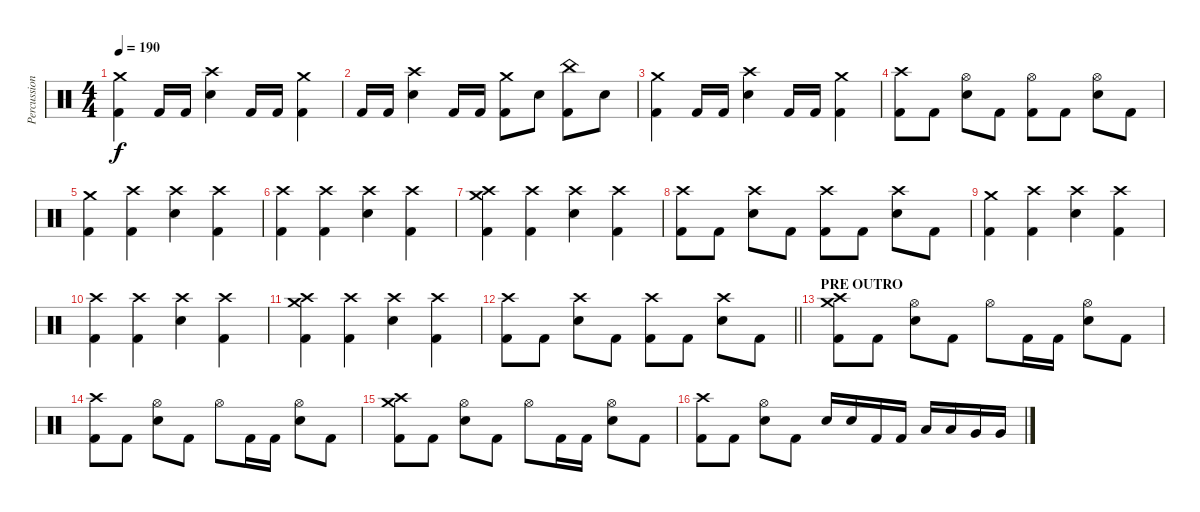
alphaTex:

\track ("Percussion" "Percussion") {instrument percussion}
\staff {score}
\articulation defaults
\ts (4 4)
\tempo 190
\clef neutral
\ks c
("Crash medium (hit)" "Kick (hit) 2").4{dy f} "Kick (hit) 2".16 "Kick (hit) 2".16 ("Crash high (hit)" "Electric Snare (hit)").4 "Kick (hit) 2".16 "Kick (hit) 2".16 ("Crash medium (hit)" "Kick (hit) 2").4 |
"Kick (hit) 2".16 "Kick (hit) 2".16 ("Crash high (hit)" "Electric Snare (hit)").4 "Kick (hit) 2".16 "Kick (hit) 2".16 ("Crash medium (hit)" "Kick (hit) 2").8 "Electric Snare (hit)".8 ("China (hit)" "Kick (hit) 2").8 "Electric Snare (hit)".8 |
("Crash medium (hit)" "Kick (hit) 2").4 "Kick (hit) 2".16 "Kick (hit) 2".16 ("Crash high (hit)" "Electric Snare (hit)").4 "Kick (hit) 2".16 "Kick (hit) 2".16 ("Crash medium (hit)" "Kick (hit) 2").4 |
("Crash high (hit)" "Kick (hit) 2").8 "Kick (hit) 2".8 ("Hi-Hat (open)" "Electric Snare (hit)").8 "Kick (hit) 2".8 ("Hi-Hat (open)" "Kick (hit) 2").8 "Kick (hit) 2".8 ("Hi-Hat (open)" "Electric Snare (hit)").8 "Kick (hit) 2".8 |
("Crash medium (hit)" "Kick (hit) 2").4 ("Crash high (hit)" "Kick (hit) 2").4 ("Crash high (hit)" "Electric Snare (hit)").4 ("Crash high (hit)" "Kick (hit) 2").4 |
("Crash high (hit)" "Kick (hit) 2").4 ("Crash high (hit)" "Kick (hit) 2").4 ("Crash high (hit)" "Electric Snare (hit)").4 ("Crash high (hit)" "Kick (hit) 2").4 |
("Crash high (hit)" "Crash medium (hit)" "Kick (hit) 2").4 ("Crash high (hit)" "Kick (hit) 2").4 ("Crash high (hit)" "Electric Snare (hit)").4 ("Crash high (hit)" "Kick (hit) 2").4 |
("Crash high (hit)" "Kick (hit) 2").8 "Kick (hit) 2".8 ("Crash high (hit)" "Electric Snare (hit)").8 "Kick (hit) 2".8 ("Crash high (hit)" "Kick (hit) 2").8 "Kick (hit) 2".8 ("Crash high (hit)" "Electric Snare (hit)").8 "Kick (hit) 2".8 |
("Crash medium (hit)" "Kick (hit) 2").4 ("Crash high (hit)" "Kick (hit) 2").4 ("Crash high (hit)" "Electric Snare (hit)").4 ("Crash high (hit)" "Kick (hit) 2").4 |
("Crash high (hit)" "Kick (hit) 2").4 ("Crash high (hit)" "Kick (hit) 2").4 ("Crash high (hit)" "Electric Snare (hit)").4 ("Crash high (hit)" "Kick (hit) 2").4 |
("Crash high (hit)" "Crash medium (hit)" "Kick (hit) 2").4 ("Crash high (hit)" "Kick (hit) 2").4 ("Crash high (hit)" "Electric Snare (hit)").4 ("Crash high (hit)" "Kick (hit) 2").4 |
\barLineRight lightlight
("Crash high (hit)" "Kick (hit) 2").8 "Kick (hit) 2".8 ("Crash high (hit)" "Electric Snare (hit)").8 "Kick (hit) 2".8 ("Crash high (hit)" "Kick (hit) 2").8 "Kick (hit) 2".8 ("Crash high (hit)" "Electric Snare (hit)").8 "Kick (hit) 2".8 |
\section ("" "PRE OUTRO")
("Crash medium (hit)" "Crash high (hit)" "Kick (hit) 2").8 "Kick (hit) 2".8 ("Hi-Hat (open)" "Electric Snare (hit)").8 "Kick (hit) 2".8 "Hi-Hat (open)".8 "Kick (hit) 2".16 "Kick (hit) 2".16 ("Hi-Hat (open)" "Electric Snare (hit)").8 "Kick (hit) 2".8 |
("Crash high (hit)" "Kick (hit) 2").8 "Kick (hit) 2".8 ("Hi-Hat (open)" "Electric Snare (hit)").8 "Kick (hit) 2".8 "Hi-Hat (open)".8 "Kick (hit) 2".16 "Kick (hit) 2".16 ("Hi-Hat (open)" "Electric Snare (hit)").8 "Kick (hit) 2".8 |
("Crash medium (hit)" "Crash high (hit)" "Kick (hit) 2").8 "Kick (hit) 2".8 ("Hi-Hat (open)" "Electric Snare (hit)").8 "Kick (hit) 2".8 "Hi-Hat (open)".8 "Kick (hit) 2".16 "Kick (hit) 2".16 ("Hi-Hat (open)" "Electric Snare (hit)").8 "Kick (hit) 2".8 |
("Crash high (hit)" "Kick (hit) 2").8 "Kick (hit) 2".8 ("Hi-Hat (open)" "Electric Snare (hit)").8 "Kick (hit) 2".8 "Electric Snare (hit)".16 "Electric Snare (hit)".16 "Kick (hit) 2".16 "Kick (hit) 2".16 "Low Tom (hit)".16 "Low Tom (hit)".16 "Very Low Tom (hit)".16 "Very Low Tom (hit)".16
